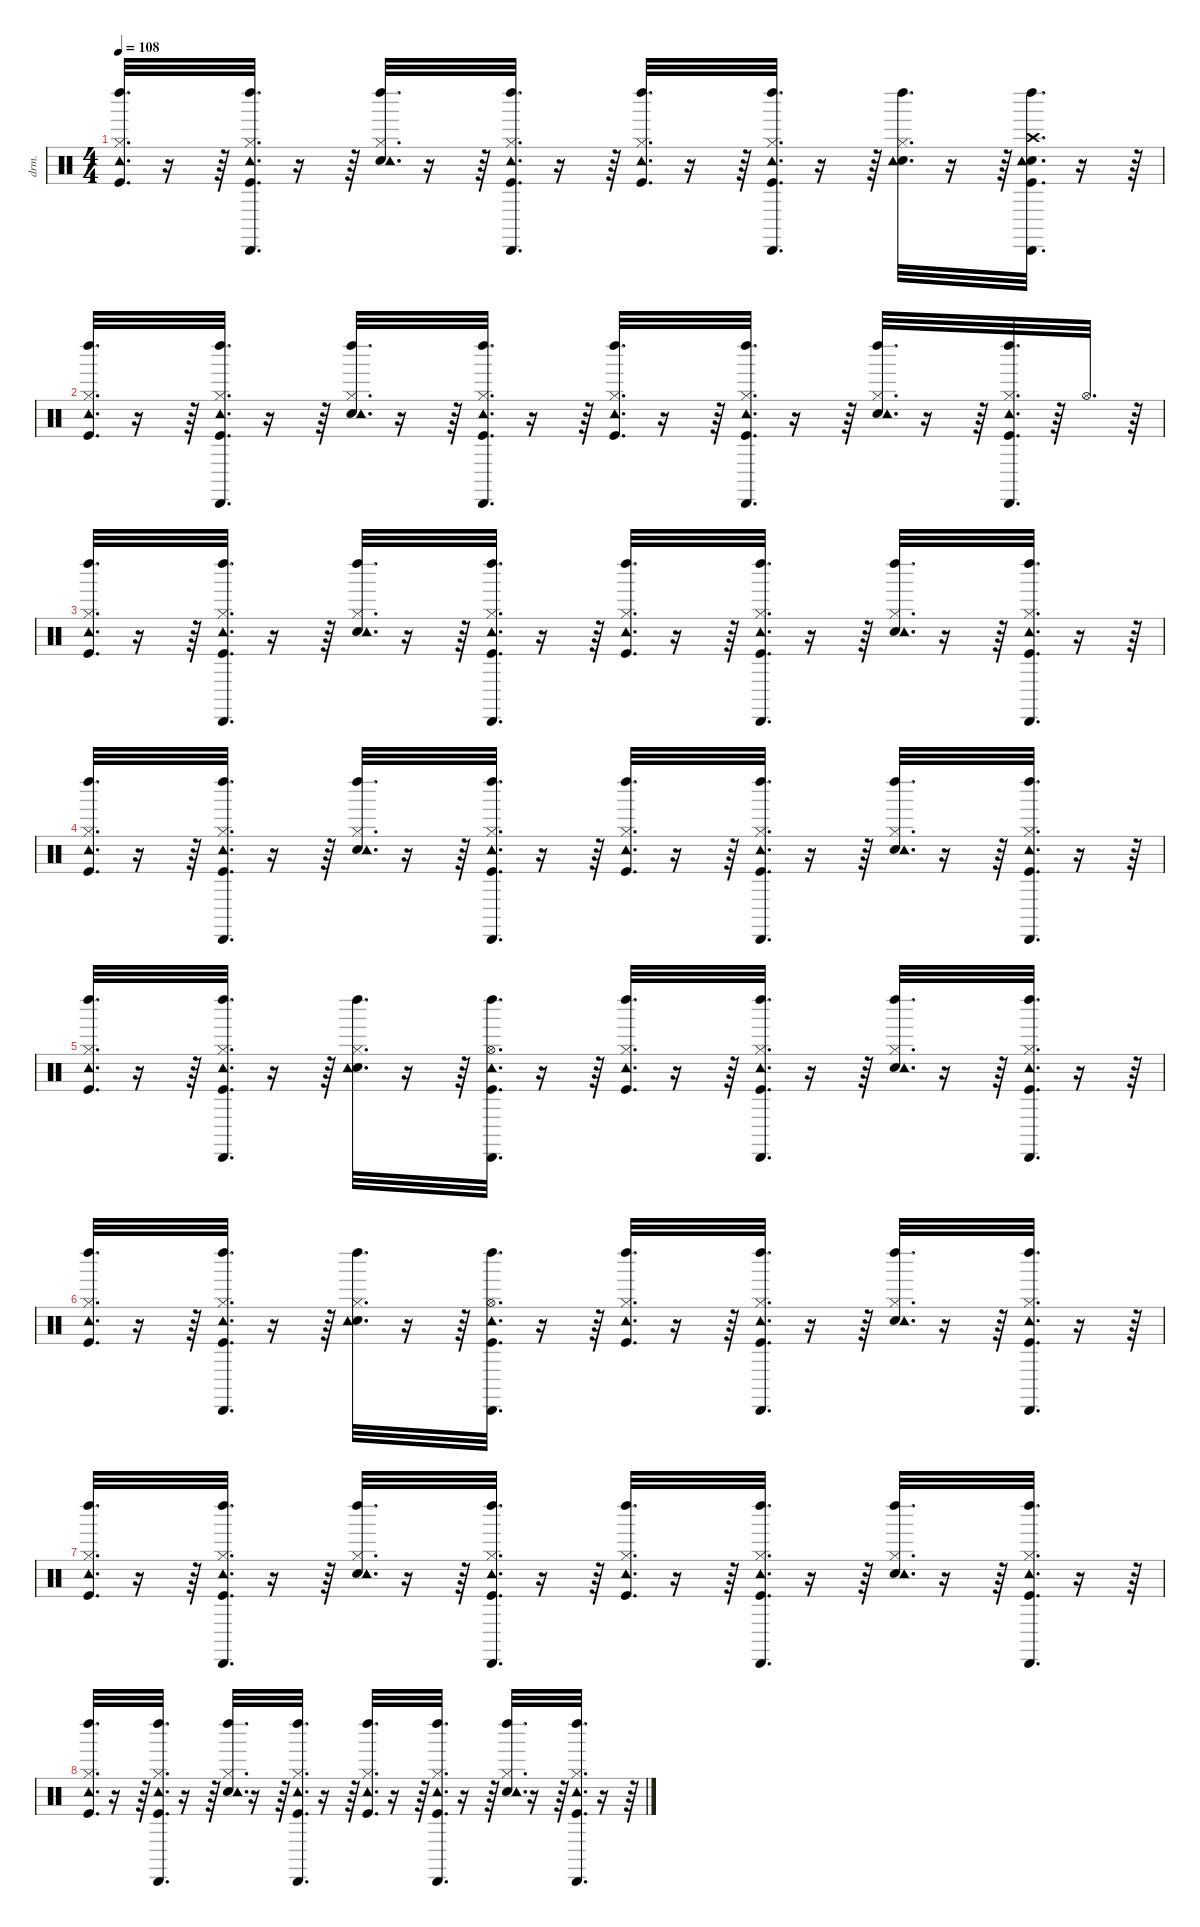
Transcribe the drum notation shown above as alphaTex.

\defaultSystemsLayout 4
\hideDynamics
\bracketExtendMode nobrackets
\otherSystemsTrackNameOrientation horizontal
\track ("Percussions" "drm.") {instrument percussion}
\staff {score}
\articulation defaults
\ts (4 4)
\tempo 108
\clef neutral
\ks c
("Left Maraca (hit)" "Kick (hit)" "Hi-Hat (closed)" "Tambourine (hit)").32{d dy f} r.16 r.64 ("Cabasa (hit)" "Tambourine (hit)" "Kick (hit)" "Hi-Hat (closed)" "Left Maraca (hit)").32{d} r.16 r.64 ("Left Maraca (hit)" "Snare (hit) 2" "Hi-Hat (closed)" "Tambourine (hit)").32{d} r.16 r.64 ("Cabasa (hit)" "Tambourine (hit)" "Kick (hit)" "Hi-Hat (closed)" "Left Maraca (hit)").32{d} r.16 r.64 ("Left Maraca (hit)" "Kick (hit)" "Hi-Hat (closed)" "Tambourine (hit)").32{d} r.16 r.64 ("Cabasa (hit)" "Tambourine (hit)" "Kick (hit)" "Hi-Hat (closed)" "Left Maraca (hit)").32{d} r.16 r.64 ("Left Maraca (hit)" "Hi-Hat (closed)" "Snare (hit) 2" "Tambourine (hit)").32{d} r.16 r.64 ("Cabasa (hit)" "Snare (hit) 2" "Crash high (hit)" "Kick (hit)" "Left Maraca (hit)" "Tambourine (hit)").32{d} r.16 r.64 |
("Left Maraca (hit)" "Kick (hit)" "Hi-Hat (closed)" "Tambourine (hit)").32{d} r.16 r.64 ("Cabasa (hit)" "Tambourine (hit)" "Kick (hit)" "Hi-Hat (closed)" "Left Maraca (hit)").32{d} r.16 r.64 ("Left Maraca (hit)" "Snare (hit) 2" "Hi-Hat (closed)" "Tambourine (hit)").32{d} r.16 r.64 ("Cabasa (hit)" "Tambourine (hit)" "Kick (hit)" "Hi-Hat (closed)" "Left Maraca (hit)").32{d} r.16 r.64 ("Left Maraca (hit)" "Kick (hit)" "Hi-Hat (closed)" "Tambourine (hit)").32{d} r.16 r.64 ("Cabasa (hit)" "Tambourine (hit)" "Kick (hit)" "Hi-Hat (closed)" "Left Maraca (hit)").32{d} r.16 r.64 ("Left Maraca (hit)" "Snare (hit) 2" "Hi-Hat (closed)" "Tambourine (hit)").32{d} r.16 r.64 ("Cabasa (hit)" "Tambourine (hit)" "Kick (hit)" "Hi-Hat (closed)" "Left Maraca (hit)").32{d} r.64 "Hi-Hat (open)".32{d} r.64 |
("Left Maraca (hit)" "Kick (hit)" "Hi-Hat (closed)" "Tambourine (hit)").32{d} r.16 r.64 ("Cabasa (hit)" "Tambourine (hit)" "Kick (hit)" "Hi-Hat (closed)" "Left Maraca (hit)").32{d} r.16 r.64 ("Left Maraca (hit)" "Snare (hit) 2" "Hi-Hat (closed)" "Tambourine (hit)").32{d} r.16 r.64 ("Cabasa (hit)" "Tambourine (hit)" "Kick (hit)" "Hi-Hat (closed)" "Left Maraca (hit)").32{d} r.16 r.64 ("Left Maraca (hit)" "Kick (hit)" "Hi-Hat (closed)" "Tambourine (hit)").32{d} r.16 r.64 ("Cabasa (hit)" "Tambourine (hit)" "Kick (hit)" "Hi-Hat (closed)" "Left Maraca (hit)").32{d} r.16 r.64 ("Left Maraca (hit)" "Snare (hit) 2" "Hi-Hat (closed)" "Tambourine (hit)").32{d} r.16 r.64 ("Cabasa (hit)" "Tambourine (hit)" "Kick (hit)" "Hi-Hat (closed)" "Left Maraca (hit)").32{d} r.16 r.64 |
("Left Maraca (hit)" "Kick (hit)" "Hi-Hat (closed)" "Tambourine (hit)").32{d} r.16 r.64 ("Cabasa (hit)" "Tambourine (hit)" "Kick (hit)" "Hi-Hat (closed)" "Left Maraca (hit)").32{d} r.16 r.64 ("Left Maraca (hit)" "Snare (hit) 2" "Hi-Hat (closed)" "Tambourine (hit)").32{d} r.16 r.64 ("Cabasa (hit)" "Tambourine (hit)" "Kick (hit)" "Hi-Hat (closed)" "Left Maraca (hit)").32{d} r.16 r.64 ("Left Maraca (hit)" "Kick (hit)" "Hi-Hat (closed)" "Tambourine (hit)").32{d} r.16 r.64 ("Cabasa (hit)" "Tambourine (hit)" "Kick (hit)" "Hi-Hat (closed)" "Left Maraca (hit)").32{d} r.16 r.64 ("Left Maraca (hit)" "Snare (hit) 2" "Hi-Hat (closed)" "Tambourine (hit)").32{d} r.16 r.64 ("Cabasa (hit)" "Tambourine (hit)" "Kick (hit)" "Hi-Hat (closed)" "Left Maraca (hit)").32{d} r.16 r.64 |
("Left Maraca (hit)" "Kick (hit)" "Hi-Hat (closed)" "Tambourine (hit)").32{d} r.16 r.64 ("Cabasa (hit)" "Tambourine (hit)" "Kick (hit)" "Hi-Hat (closed)" "Left Maraca (hit)").32{d} r.16 r.64 ("Left Maraca (hit)" "Snare (hit) 2" "Hi-Hat (closed)" "Tambourine (hit)").32{d} r.16 r.64 ("Cabasa (hit)" "Tambourine (hit)" "Kick (hit)" "Hi-Hat (open)" "Left Maraca (hit)").32{d} r.16 r.64 ("Left Maraca (hit)" "Kick (hit)" "Hi-Hat (closed)" "Tambourine (hit)").32{d} r.16 r.64 ("Cabasa (hit)" "Tambourine (hit)" "Kick (hit)" "Hi-Hat (closed)" "Left Maraca (hit)").32{d} r.16 r.64 ("Left Maraca (hit)" "Snare (hit) 2" "Hi-Hat (closed)" "Tambourine (hit)").32{d} r.16 r.64 ("Cabasa (hit)" "Tambourine (hit)" "Kick (hit)" "Hi-Hat (closed)" "Left Maraca (hit)").32{d} r.16 r.64 |
("Left Maraca (hit)" "Kick (hit)" "Hi-Hat (closed)" "Tambourine (hit)").32{d} r.16 r.64 ("Cabasa (hit)" "Tambourine (hit)" "Kick (hit)" "Hi-Hat (closed)" "Left Maraca (hit)").32{d} r.16 r.64 ("Left Maraca (hit)" "Snare (hit) 2" "Hi-Hat (closed)" "Tambourine (hit)").32{d} r.16 r.64 ("Cabasa (hit)" "Tambourine (hit)" "Kick (hit)" "Hi-Hat (open)" "Left Maraca (hit)").32{d} r.16 r.64 ("Left Maraca (hit)" "Kick (hit)" "Hi-Hat (closed)" "Tambourine (hit)").32{d} r.16 r.64 ("Cabasa (hit)" "Tambourine (hit)" "Kick (hit)" "Hi-Hat (closed)" "Left Maraca (hit)").32{d} r.16 r.64 ("Left Maraca (hit)" "Snare (hit) 2" "Hi-Hat (closed)" "Tambourine (hit)").32{d} r.16 r.64 ("Cabasa (hit)" "Tambourine (hit)" "Kick (hit)" "Hi-Hat (closed)" "Left Maraca (hit)").32{d} r.16 r.64 |
("Left Maraca (hit)" "Kick (hit)" "Hi-Hat (closed)" "Tambourine (hit)").32{d} r.16 r.64 ("Cabasa (hit)" "Tambourine (hit)" "Kick (hit)" "Hi-Hat (closed)" "Left Maraca (hit)").32{d} r.16 r.64 ("Left Maraca (hit)" "Snare (hit) 2" "Hi-Hat (closed)" "Tambourine (hit)").32{d} r.16 r.64 ("Cabasa (hit)" "Tambourine (hit)" "Kick (hit)" "Hi-Hat (closed)" "Left Maraca (hit)").32{d} r.16 r.64 ("Left Maraca (hit)" "Kick (hit)" "Hi-Hat (closed)" "Tambourine (hit)").32{d} r.16 r.64 ("Cabasa (hit)" "Tambourine (hit)" "Kick (hit)" "Hi-Hat (closed)" "Left Maraca (hit)").32{d} r.16 r.64 ("Left Maraca (hit)" "Snare (hit) 2" "Hi-Hat (closed)" "Tambourine (hit)").32{d} r.16 r.64 ("Cabasa (hit)" "Tambourine (hit)" "Kick (hit)" "Hi-Hat (closed)" "Left Maraca (hit)").32{d} r.16 r.64 |
("Left Maraca (hit)" "Kick (hit)" "Hi-Hat (closed)" "Tambourine (hit)").32{d} r.16 r.64 ("Cabasa (hit)" "Tambourine (hit)" "Kick (hit)" "Hi-Hat (closed)" "Left Maraca (hit)").32{d} r.16 r.64 ("Left Maraca (hit)" "Snare (hit) 2" "Hi-Hat (closed)" "Tambourine (hit)").32{d} r.16 r.64 ("Cabasa (hit)" "Tambourine (hit)" "Kick (hit)" "Hi-Hat (closed)" "Left Maraca (hit)").32{d} r.16 r.64 ("Left Maraca (hit)" "Kick (hit)" "Hi-Hat (closed)" "Tambourine (hit)").32{d} r.16 r.64 ("Cabasa (hit)" "Tambourine (hit)" "Kick (hit)" "Hi-Hat (closed)" "Left Maraca (hit)").32{d} r.16 r.64 ("Left Maraca (hit)" "Snare (hit) 2" "Hi-Hat (closed)" "Tambourine (hit)").32{d} r.16 r.64 ("Cabasa (hit)" "Tambourine (hit)" "Kick (hit)" "Hi-Hat (closed)" "Left Maraca (hit)").32{d} r.16 r.64
